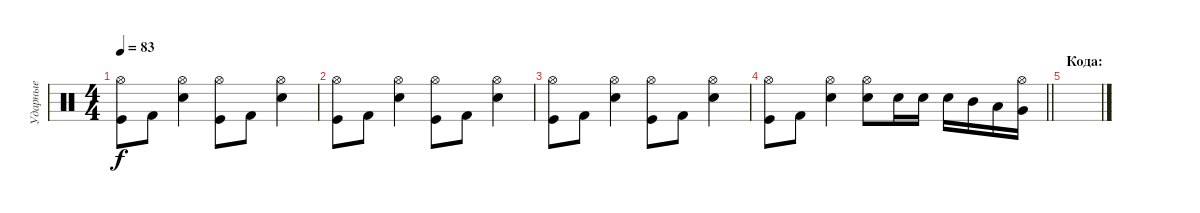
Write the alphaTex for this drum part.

\track ("Ударные" "Ударные") {instrument percussion}
\staff {score}
\articulation defaults
\ts (4 4)
\tempo 83
\clef neutral
\ks c
("Hi-Hat (open)" "Kick (hit)").8{dy f} "Kick (hit) 2".8 ("Hi-Hat (open)" "Electric Snare (hit)").4 ("Hi-Hat (open)" "Kick (hit)").8 "Kick (hit) 2".8 ("Hi-Hat (open)" "Electric Snare (hit)").4 |
("Hi-Hat (open)" "Kick (hit)").8 "Kick (hit) 2".8 ("Hi-Hat (open)" "Electric Snare (hit)").4 ("Hi-Hat (open)" "Kick (hit)").8 "Kick (hit) 2".8 ("Hi-Hat (open)" "Electric Snare (hit)").4 |
("Hi-Hat (open)" "Kick (hit)").8 "Kick (hit) 2".8 ("Hi-Hat (open)" "Electric Snare (hit)").4 ("Hi-Hat (open)" "Kick (hit)").8 "Kick (hit) 2".8 ("Hi-Hat (open)" "Electric Snare (hit)").4 |
\barLineRight lightlight
("Hi-Hat (open)" "Kick (hit)").8 "Kick (hit) 2".8 ("Hi-Hat (open)" "Electric Snare (hit)").4 ("Hi-Hat (open)" "Electric Snare (hit)").8 "Electric Snare (hit)".16 "Electric Snare (hit)".16 "Electric Snare (hit)".16 "Mid Tom (hit)".16 "Low Tom (hit)".16 ("Hi-Hat (open)" "Very Low Tom (hit)").16 |
\section ("" "Кода:")
